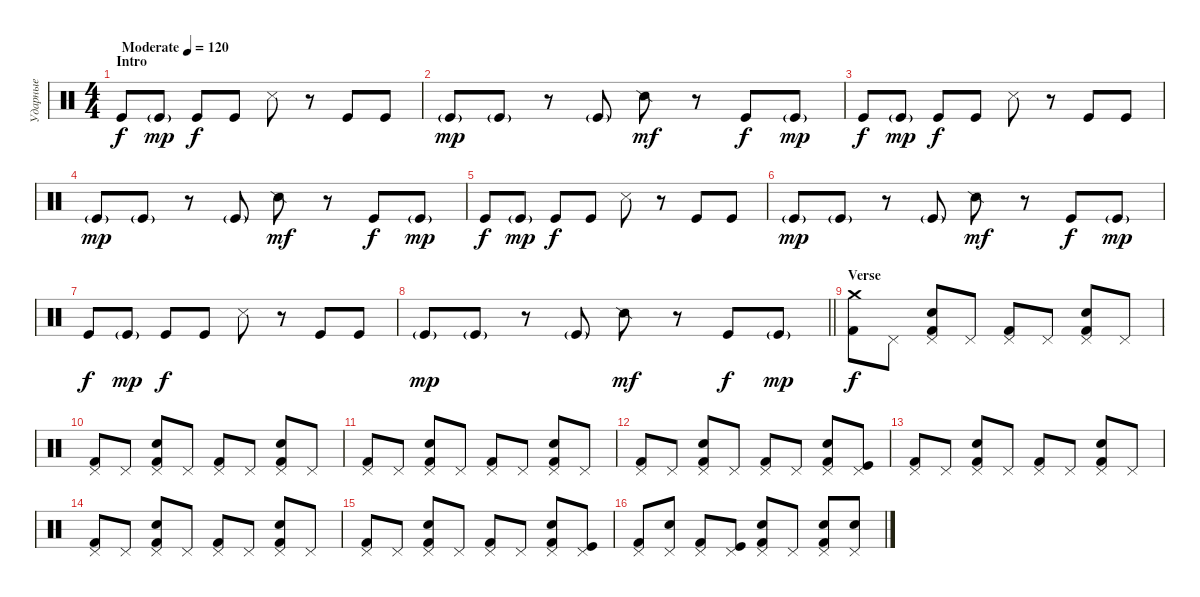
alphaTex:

\track ("Ударные" "Ударные") {instrument percussion}
\staff {score}
\articulation defaults
\ts (4 4)
\section ("" "Intro")
\tempo (120 "Moderate")
\clef neutral
\ks c "Kick (hit)".8{dy f volume 8 balance 13} "Kick (hit)"{g}.8{dy mp} "Kick (hit)".8{dy f} "Kick (hit)".8 "Snare (side stick) 3".8
r.8 "Kick (hit)".8 "Kick (hit)".8 |
"Kick (hit)"{g}.8{dy mp} "Kick (hit)"{g}.8 r.8 "Kick (hit)"{g}.8 "Snare (side stick) 2".8{dy mf} r.8 "Kick (hit)".8{dy f} "Kick (hit)"{g}.8{dy mp} |
"Kick (hit)".8{dy f} "Kick (hit)"{g}.8{dy mp} "Kick (hit)".8{dy f} "Kick (hit)".8 "Snare (side stick) 3".8 r.8 "Kick (hit)".8 "Kick (hit)".8 |
"Kick (hit)"{g}.8{dy mp} "Kick (hit)"{g}.8 r.8 "Kick (hit)"{g}.8 "Snare (side stick) 2".8{dy mf} r.8 "Kick (hit)".8{dy f} "Kick (hit)"{g}.8{dy mp} |
"Kick (hit)".8{dy f} "Kick (hit)"{g}.8{dy mp} "Kick (hit)".8{dy f} "Kick (hit)".8 "Snare (side stick) 3".8 r.8 "Kick (hit)".8 "Kick (hit)".8 |
"Kick (hit)"{g}.8{dy mp} "Kick (hit)"{g}.8 r.8 "Kick (hit)"{g}.8 "Snare (side stick) 2".8{dy mf} r.8 "Kick (hit)".8{dy f} "Kick (hit)"{g}.8{dy mp} |
"Kick (hit)".8{dy f} "Kick (hit)"{g}.8{dy mp} "Kick (hit)".8{dy f} "Kick (hit)".8 "Snare (side stick) 3".8 r.8 "Kick (hit)".8 "Kick (hit)".8 |
\barLineRight lightlight "Kick (hit)"{g}.8{dy mp} "Kick (hit)"{g}.8
r.8 "Kick (hit)"{g}.8 "Snare (side stick) 2".8{dy mf} r.8 "Kick (hit)".8{dy f} "Kick (hit)"{g}.8{dy mp} |
\section ("" "Verse")
("Crash medium (hit)" "Kick (hit) 2").8{dy f volume 14 balance 8} "Pedal Hi-Hat (hit)".8 ("Pedal Hi-Hat (hit)" "Electric Snare (hit)" "Kick (hit) 2").8 "Pedal Hi-Hat (hit)".8 ("Pedal Hi-Hat (hit)" "Kick (hit) 2").8 "Pedal Hi-Hat (hit)".8 ("Pedal Hi-Hat (hit)" "Electric Snare (hit)" "Kick (hit) 2").8 "Pedal Hi-Hat (hit)".8 |
("Pedal Hi-Hat (hit)" "Kick (hit) 2").8 "Pedal Hi-Hat (hit)".8 ("Pedal Hi-Hat (hit)" "Electric Snare (hit)" "Kick (hit) 2").8 "Pedal Hi-Hat (hit)".8 ("Pedal Hi-Hat (hit)" "Kick (hit) 2").8 "Pedal Hi-Hat (hit)".8 ("Pedal Hi-Hat (hit)" "Electric Snare (hit)" "Kick (hit) 2").8 "Pedal Hi-Hat (hit)".8 |
("Pedal Hi-Hat (hit)" "Kick (hit) 2").8 "Pedal Hi-Hat (hit)".8 ("Pedal Hi-Hat (hit)" "Electric Snare (hit)" "Kick (hit) 2").8 "Pedal Hi-Hat (hit)".8 ("Pedal Hi-Hat (hit)" "Kick (hit) 2").8 "Pedal Hi-Hat (hit)".8 ("Pedal Hi-Hat (hit)" "Electric Snare (hit)" "Kick (hit) 2").8 "Pedal Hi-Hat (hit)".8 |
("Pedal Hi-Hat (hit)" "Kick (hit) 2").8 "Pedal Hi-Hat (hit)".8 ("Pedal Hi-Hat (hit)" "Electric Snare (hit)" "Kick (hit) 2").8 "Pedal Hi-Hat (hit)".8 ("Pedal Hi-Hat (hit)" "Kick (hit) 2").8 "Pedal Hi-Hat (hit)".8 ("Pedal Hi-Hat (hit)" "Electric Snare (hit)" "Kick (hit) 2").8 ("Pedal Hi-Hat (hit)" "Kick (hit)").8 |
("Pedal Hi-Hat (hit)" "Kick (hit) 2").8 "Pedal Hi-Hat (hit)".8 ("Pedal Hi-Hat (hit)" "Electric Snare (hit)" "Kick (hit) 2").8 "Pedal Hi-Hat (hit)".8 ("Pedal Hi-Hat (hit)" "Kick (hit) 2").8 "Pedal Hi-Hat (hit)".8 ("Pedal Hi-Hat (hit)" "Electric Snare (hit)" "Kick (hit) 2").8 "Pedal Hi-Hat (hit)".8 |
("Pedal Hi-Hat (hit)" "Kick (hit) 2").8 "Pedal Hi-Hat (hit)".8 ("Pedal Hi-Hat (hit)" "Electric Snare (hit)" "Kick (hit) 2").8 "Pedal Hi-Hat (hit)".8 ("Pedal Hi-Hat (hit)" "Kick (hit) 2").8 "Pedal Hi-Hat (hit)".8 ("Pedal Hi-Hat (hit)" "Electric Snare (hit)" "Kick (hit) 2").8 "Pedal Hi-Hat (hit)".8 |
("Pedal Hi-Hat (hit)" "Kick (hit) 2").8 "Pedal Hi-Hat (hit)".8 ("Pedal Hi-Hat (hit)" "Electric Snare (hit)" "Kick (hit) 2").8 "Pedal Hi-Hat (hit)".8 ("Pedal Hi-Hat (hit)" "Kick (hit) 2").8 "Pedal Hi-Hat (hit)".8 ("Pedal Hi-Hat (hit)" "Electric Snare (hit)" "Kick (hit) 2").8 ("Pedal Hi-Hat (hit)" "Kick (hit)").8 |
("Pedal Hi-Hat (hit)" "Kick (hit) 2").8 ("Pedal Hi-Hat (hit)" "Electric Snare (hit)").8 ("Pedal Hi-Hat (hit)" "Kick (hit) 2").8 ("Pedal Hi-Hat (hit)" "Kick (hit)").8 ("Pedal Hi-Hat (hit)" "Electric Snare (hit)" "Kick (hit) 2").8 "Pedal Hi-Hat (hit)".8 ("Pedal Hi-Hat (hit)" "Electric Snare (hit)" "Kick (hit) 2").8 ("Pedal Hi-Hat (hit)" "Electric Snare (hit)").8
